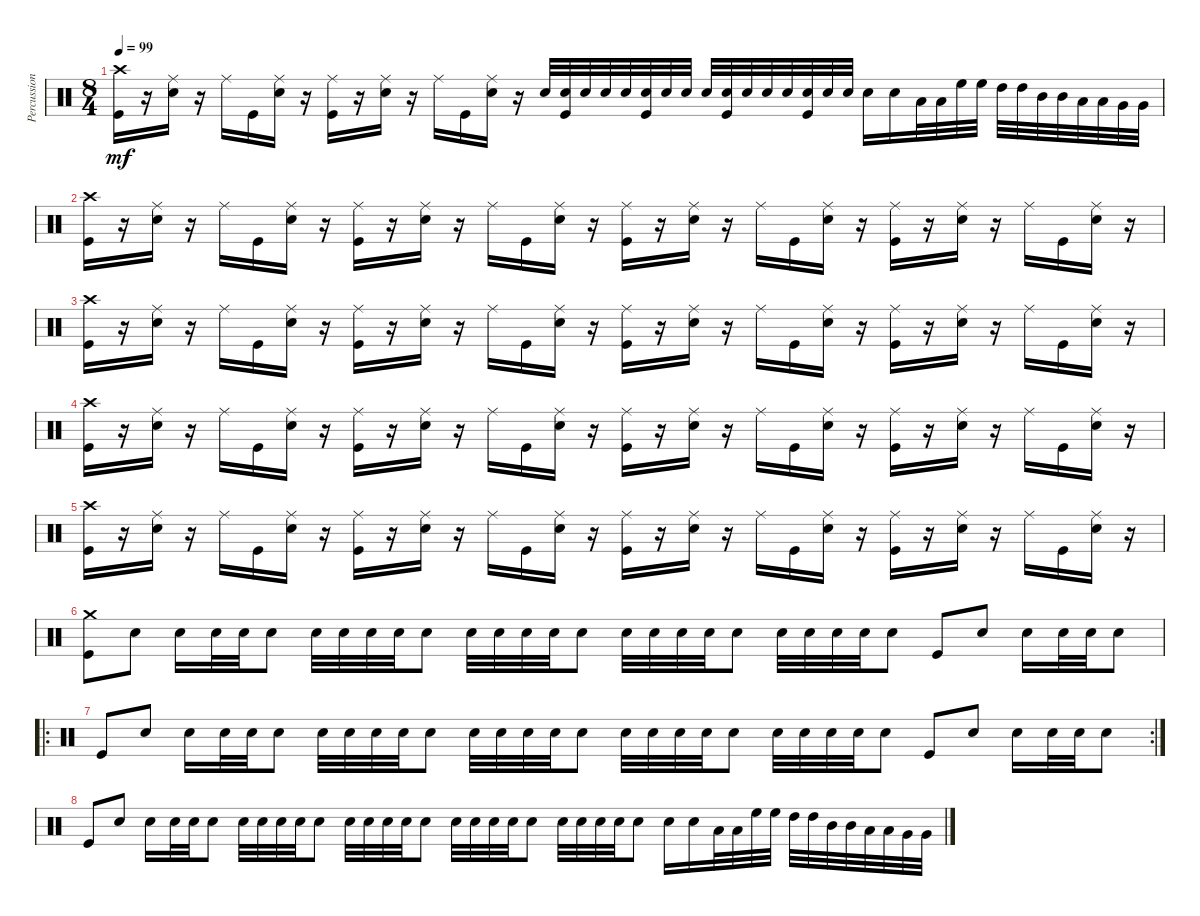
\track ("Percussion" "Percussion") {instrument percussion}
\staff {score}
\articulation defaults
\ts (8 4)
\tempo 99
\clef neutral
\ks c
("Crash high (hit)" "Kick (hit)").16{dy mf} r.16 ("Ride (middle)" "Electric Snare (hit)").16 r.16 "Ride (middle)".16 "Kick (hit)".16 ("Ride (middle)" "Electric Snare (hit)").16 r.16 ("Ride (middle)" "Kick (hit)").16 r.16 ("Ride (middle)" "Electric Snare (hit)").16 r.16 "Ride (middle)".16 "Kick (hit)".16 ("Ride (middle)" "Electric Snare (hit)").16 r.16 "Electric Snare (hit)".32 ("Electric Snare (hit)" "Kick (hit)").32 "Electric Snare (hit)".32 "Electric Snare (hit)".32 "Electric Snare (hit)".32 ("Electric Snare (hit)" "Kick (hit)").32 "Electric Snare (hit)".32 "Electric Snare (hit)".32 "Electric Snare (hit)".32 ("Electric Snare (hit)" "Kick (hit)").32 "Electric Snare (hit)".32 "Electric Snare (hit)".32 "Electric Snare (hit)".32 ("Electric Snare (hit)" "Kick (hit)").32 "Electric Snare (hit)".32 "Electric Snare (hit)".32 "Electric Snare (hit)".16 "Electric Snare (hit)".16 "Low Floor Tom (hit)".32 "Low Floor Tom (hit)".32 "High Floor Tom (hit)".32 "High Floor Tom (hit)".32 "High Tom (hit)".32 "High Tom (hit)".32 "Mid Tom (hit)".32 "Mid Tom (hit)".32 "Low Tom (hit)".32 "Low Tom (hit)".32 "Very Low Tom (hit)".32 "Very Low Tom (hit)".32 |
("Crash high (hit)" "Kick (hit)").16 r.16 ("Ride (middle)" "Electric Snare (hit)").16 r.16 "Ride (middle)".16 "Kick (hit)".16 ("Ride (middle)" "Electric Snare (hit)").16 r.16 ("Ride (middle)" "Kick (hit)").16 r.16 ("Ride (middle)" "Electric Snare (hit)").16 r.16 "Ride (middle)".16 "Kick (hit)".16 ("Ride (middle)" "Electric Snare (hit)").16 r.16 ("Ride (middle)" "Kick (hit)").16 r.16 ("Ride (middle)" "Electric Snare (hit)").16 r.16 "Ride (middle)".16 "Kick (hit)".16 ("Ride (middle)" "Electric Snare (hit)").16 r.16 ("Ride (middle)" "Kick (hit)").16 r.16 ("Ride (middle)" "Electric Snare (hit)").16 r.16 "Ride (middle)".16 "Kick (hit)".16 ("Ride (middle)" "Electric Snare (hit)").16 r.16 |
("Crash high (hit)" "Kick (hit)").16 r.16 ("Ride (middle)" "Electric Snare (hit)").16 r.16 "Ride (middle)".16 "Kick (hit)".16 ("Ride (middle)" "Electric Snare (hit)").16 r.16 ("Ride (middle)" "Kick (hit)").16 r.16 ("Ride (middle)" "Electric Snare (hit)").16 r.16 "Ride (middle)".16 "Kick (hit)".16 ("Ride (middle)" "Electric Snare (hit)").16 r.16 ("Ride (middle)" "Kick (hit)").16 r.16 ("Ride (middle)" "Electric Snare (hit)").16 r.16 "Ride (middle)".16 "Kick (hit)".16 ("Ride (middle)" "Electric Snare (hit)").16 r.16 ("Ride (middle)" "Kick (hit)").16 r.16 ("Ride (middle)" "Electric Snare (hit)").16 r.16 "Ride (middle)".16 "Kick (hit)".16 ("Ride (middle)" "Electric Snare (hit)").16 r.16 |
("Crash high (hit)" "Kick (hit)").16 r.16 ("Ride (middle)" "Electric Snare (hit)").16 r.16 "Ride (middle)".16 "Kick (hit)".16 ("Ride (middle)" "Electric Snare (hit)").16 r.16 ("Ride (middle)" "Kick (hit)").16 r.16 ("Ride (middle)" "Electric Snare (hit)").16 r.16 "Ride (middle)".16 "Kick (hit)".16 ("Ride (middle)" "Electric Snare (hit)").16 r.16 ("Ride (middle)" "Kick (hit)").16 r.16 ("Ride (middle)" "Electric Snare (hit)").16 r.16 "Ride (middle)".16 "Kick (hit)".16 ("Ride (middle)" "Electric Snare (hit)").16 r.16 ("Ride (middle)" "Kick (hit)").16 r.16 ("Ride (middle)" "Electric Snare (hit)").16 r.16 "Ride (middle)".16 "Kick (hit)".16 ("Ride (middle)" "Electric Snare (hit)").16 r.16 |
("Crash high (hit)" "Kick (hit)").16 r.16 ("Ride (middle)" "Electric Snare (hit)").16 r.16 "Ride (middle)".16 "Kick (hit)".16 ("Ride (middle)" "Electric Snare (hit)").16 r.16 ("Ride (middle)" "Kick (hit)").16 r.16 ("Ride (middle)" "Electric Snare (hit)").16 r.16 "Ride (middle)".16 "Kick (hit)".16 ("Ride (middle)" "Electric Snare (hit)").16 r.16 ("Ride (middle)" "Kick (hit)").16 r.16 ("Ride (middle)" "Electric Snare (hit)").16 r.16 "Ride (middle)".16 "Kick (hit)".16 ("Ride (middle)" "Electric Snare (hit)").16 r.16 ("Ride (middle)" "Kick (hit)").16 r.16 ("Ride (middle)" "Electric Snare (hit)").16 r.16 "Ride (middle)".16 "Kick (hit)".16 ("Ride (middle)" "Electric Snare (hit)").16 r.16 |
("Kick (hit)" "Crash medium (hit)").8 "Electric Snare (hit)".8 "Electric Snare (hit)".16 "Electric Snare (hit)".32 "Electric Snare (hit)".32 "Electric Snare (hit)".8 "Electric Snare (hit)".32 "Electric Snare (hit)".32 "Electric Snare (hit)".32 "Electric Snare (hit)".32 "Electric Snare (hit)".8 "Electric Snare (hit)".32 "Electric Snare (hit)".32 "Electric Snare (hit)".32 "Electric Snare (hit)".32 "Electric Snare (hit)".8 "Electric Snare (hit)".32 "Electric Snare (hit)".32 "Electric Snare (hit)".32 "Electric Snare (hit)".32 "Electric Snare (hit)".8 "Electric Snare (hit)".32 "Electric Snare (hit)".32 "Electric Snare (hit)".32 "Electric Snare (hit)".32 "Electric Snare (hit)".8 "Kick (hit)".8 "Electric Snare (hit)".8 "Electric Snare (hit)".16 "Electric Snare (hit)".32 "Electric Snare (hit)".32 "Electric Snare (hit)".8 |
\ro
\rc 2 "Kick (hit)".8 "Electric Snare (hit)".8 "Electric Snare (hit)".16 "Electric Snare (hit)".32 "Electric Snare (hit)".32 "Electric Snare (hit)".8 "Electric Snare (hit)".32 "Electric Snare (hit)".32 "Electric Snare (hit)".32 "Electric Snare (hit)".32 "Electric Snare (hit)".8 "Electric Snare (hit)".32 "Electric Snare (hit)".32 "Electric Snare (hit)".32 "Electric Snare (hit)".32 "Electric Snare (hit)".8 "Electric Snare (hit)".32 "Electric Snare (hit)".32 "Electric Snare (hit)".32 "Electric Snare (hit)".32 "Electric Snare (hit)".8 "Electric Snare (hit)".32 "Electric Snare (hit)".32 "Electric Snare (hit)".32 "Electric Snare (hit)".32 "Electric Snare (hit)".8 "Kick (hit)".8 "Electric Snare (hit)".8 "Electric Snare (hit)".16 "Electric Snare (hit)".32 "Electric Snare (hit)".32 "Electric Snare (hit)".8
|
"Kick (hit)".8 "Electric Snare (hit)".8 "Electric Snare (hit)".16 "Electric Snare (hit)".32 "Electric Snare (hit)".32 "Electric Snare (hit)".8 "Electric Snare (hit)".32 "Electric Snare (hit)".32 "Electric Snare (hit)".32 "Electric Snare (hit)".32 "Electric Snare (hit)".8 "Electric Snare (hit)".32 "Electric Snare (hit)".32 "Electric Snare (hit)".32 "Electric Snare (hit)".32 "Electric Snare (hit)".8 "Electric Snare (hit)".32 "Electric Snare (hit)".32 "Electric Snare (hit)".32 "Electric Snare (hit)".32 "Electric Snare (hit)".8 "Electric Snare (hit)".32 "Electric Snare (hit)".32 "Electric Snare (hit)".32 "Electric Snare (hit)".32 "Electric Snare (hit)".8 "Electric Snare (hit)".16 "Electric Snare (hit)".16 "Low Floor Tom (hit)".32 "Low Floor Tom (hit)".32 "High Floor Tom (hit)".32 "High Floor Tom (hit)".32 "High Tom (hit)".32 "High Tom (hit)".32 "Mid Tom (hit)".32 "Mid Tom (hit)".32 "Low Tom (hit)".32 "Low Tom (hit)".32 "Very Low Tom (hit)".32 "Very Low Tom (hit)".32
